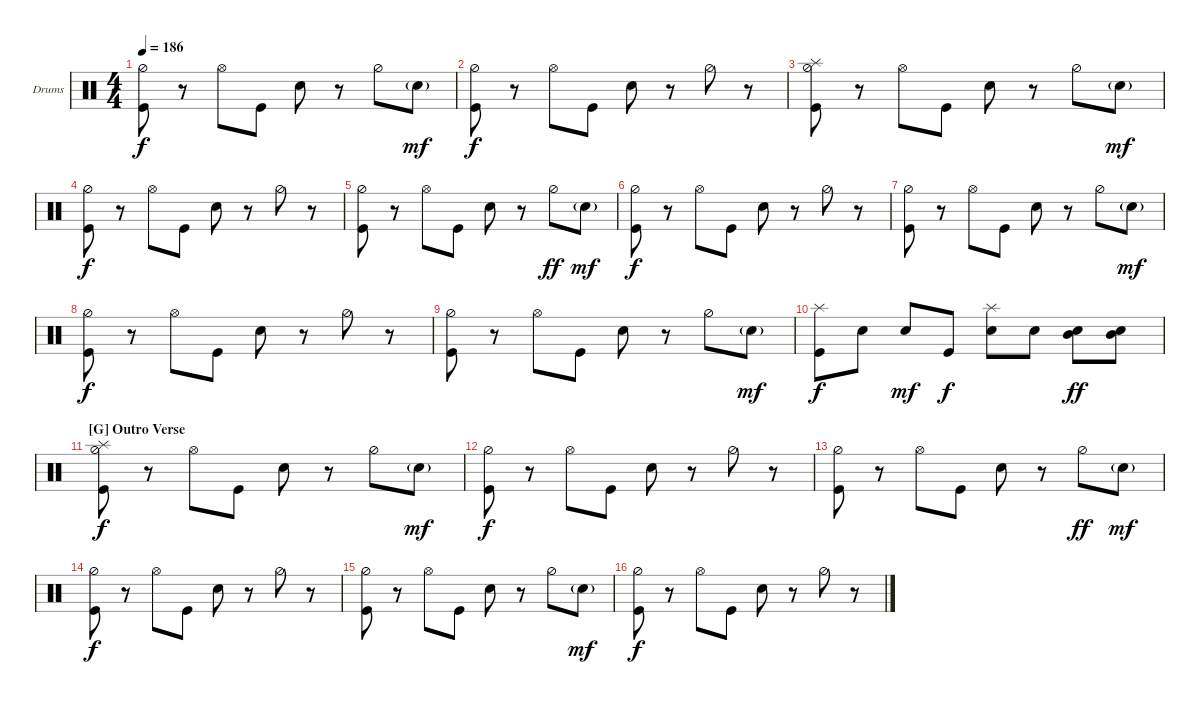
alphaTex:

\defaultSystemsLayout 4
\bracketExtendMode groupsimilarinstruments
\firstSystemTrackNameOrientation horizontal
\otherSystemsTrackNameOrientation horizontal
\track ("Drumkit" "Drums") {instrument percussion}
\staff {score}
\articulation defaults
\ts (4 4)
\tempo 186
\clef neutral
\ks c
("Hi-Hat (half)" "Kick (hit)").8{dy f} r.8 "Hi-Hat (open)".8 "Kick (hit)".8 "Snare (hit) 2".8 r.8 "Hi-Hat (half)".8 "Snare (hit) 2"{g}.8{dy mf} |
("Hi-Hat (half)" "Kick (hit)").8{dy f} r.8 "Hi-Hat (open)".8 "Kick (hit)".8 "Snare (hit) 2".8 r.8 "Hi-Hat (half)".8 r.8 |
("Hi-Hat (half)" "Kick (hit)" "Splash (hit)").8 r.8 "Hi-Hat (open)".8 "Kick (hit)".8 "Snare (hit) 2".8 r.8 "Hi-Hat (half)".8 "Snare (hit) 2"{g}.8{dy mf} |
("Hi-Hat (half)" "Kick (hit)").8{dy f} r.8 "Hi-Hat (open)".8 "Kick (hit)".8 "Snare (hit) 2".8 r.8 "Hi-Hat (half)".8 r.8 |
("Hi-Hat (half)" "Kick (hit)").8 r.8 "Hi-Hat (open)".8 "Kick (hit)".8 "Snare (hit) 2".8 r.8 "Hi-Hat (half)".8{dy ff} "Snare (hit) 2"{g}.8{dy mf} |
("Hi-Hat (half)" "Kick (hit)").8{dy f} r.8 "Hi-Hat (open)".8 "Kick (hit)".8 "Snare (hit) 2".8 r.8 "Hi-Hat (half)".8 r.8 |
("Hi-Hat (half)" "Kick (hit)").8 r.8 "Hi-Hat (open)".8 "Kick (hit)".8 "Snare (hit) 2".8 r.8 "Hi-Hat (half)".8 "Snare (hit) 2"{g}.8{dy mf} |
("Hi-Hat (half)" "Kick (hit)").8{dy f} r.8 "Hi-Hat (open)".8 "Kick (hit)".8 "Snare (hit) 2".8 r.8 "Hi-Hat (half)".8 r.8 |
("Hi-Hat (half)" "Kick (hit)").8 r.8 "Hi-Hat (open)".8 "Kick (hit)".8 "Snare (hit) 2".8 r.8 "Hi-Hat (half)".8 "Snare (hit) 2"{g}.8{dy mf} |
("Kick (hit)" "Splash (hit)").8{dy f} "Snare (hit) 2".8 "Snare (hit) 2".8{dy mf} "Kick (hit)".8{dy f} ("Snare (hit) 2" "Splash (hit)").8 "Snare (hit) 2".8 ("Mid Tom (hit)" "Snare (hit) 2").8{dy ff} ("Mid Tom (hit)" "Snare (hit) 2").8 |
\section ("G" "Outro Verse")
("Hi-Hat (half)" "Kick (hit)" "Splash (hit)").8{dy f} r.8 "Hi-Hat (open)".8 "Kick (hit)".8 "Snare (hit) 2".8 r.8 "Hi-Hat (half)".8 "Snare (hit) 2"{g}.8{dy mf} |
("Hi-Hat (half)" "Kick (hit)").8{dy f} r.8 "Hi-Hat (open)".8 "Kick (hit)".8 "Snare (hit) 2".8 r.8 "Hi-Hat (half)".8 r.8 |
("Hi-Hat (half)" "Kick (hit)").8 r.8 "Hi-Hat (open)".8 "Kick (hit)".8 "Snare (hit) 2".8 r.8 "Hi-Hat (half)".8{dy ff} "Snare (hit) 2"{g}.8{dy mf} |
("Hi-Hat (half)" "Kick (hit)").8{dy f} r.8 "Hi-Hat (open)".8 "Kick (hit)".8 "Snare (hit) 2".8 r.8 "Hi-Hat (half)".8 r.8 |
("Hi-Hat (half)" "Kick (hit)").8 r.8 "Hi-Hat (open)".8 "Kick (hit)".8 "Snare (hit) 2".8 r.8 "Hi-Hat (half)".8 "Snare (hit) 2"{g}.8{dy mf} |
("Hi-Hat (half)" "Kick (hit)").8{dy f} r.8 "Hi-Hat (open)".8 "Kick (hit)".8 "Snare (hit) 2".8 r.8 "Hi-Hat (half)".8 r.8
